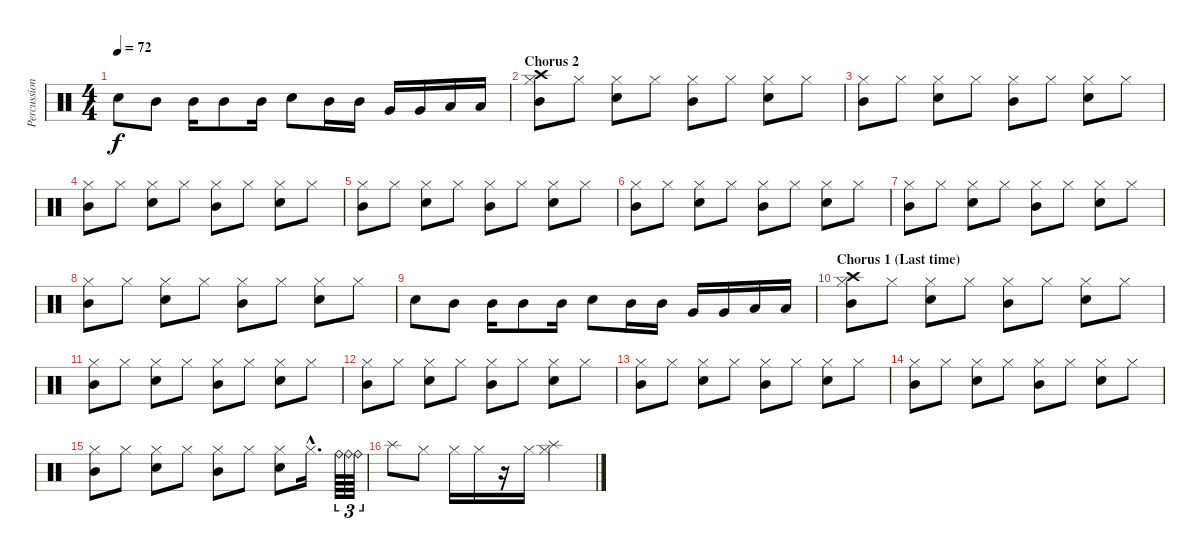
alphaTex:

\track ("Percussion" "Percussion") {instrument percussion}
\staff {score}
\articulation defaults
\ts (4 4)
\tempo 72
\clef neutral
\ks c "Snare (hit) 2".8{dy f} "Mid Tom (hit)".8 "Mid Tom (hit)".16 "Mid Tom (hit)".8 "Mid Tom (hit)".16 "Snare (hit) 2".8 "Mid Tom (hit)".16 "Mid Tom (hit)".16 "Very Low Tom (hit)".16 "Very Low Tom (hit)".16 "Low Floor Tom (hit)".16 "Low Floor Tom (hit)".16
|
\section ("" "Chorus 2")
("Crash high (hit)" "Hi-Hat (closed)" "Mid Tom (hit)").8 "Hi-Hat (closed)".8 ("Hi-Hat (closed)" "Snare (hit) 2").8 "Hi-Hat (closed)".8 ("Hi-Hat (closed)" "Mid Tom (hit)").8 "Hi-Hat (closed)".8 ("Hi-Hat (closed)" "Snare (hit) 2").8 "Hi-Hat (closed)".8 |
("Hi-Hat (closed)" "Mid Tom (hit)").8 "Hi-Hat (closed)".8 ("Hi-Hat (closed)" "Snare (hit) 2").8 "Hi-Hat (closed)".8 ("Hi-Hat (closed)" "Mid Tom (hit)").8 "Hi-Hat (closed)".8 ("Hi-Hat (closed)" "Snare (hit) 2").8 "Hi-Hat (closed)".8 |
("Hi-Hat (closed)" "Mid Tom (hit)").8 "Hi-Hat (closed)".8 ("Hi-Hat (closed)" "Snare (hit) 2").8 "Hi-Hat (closed)".8 ("Hi-Hat (closed)" "Mid Tom (hit)").8 "Hi-Hat (closed)".8 ("Hi-Hat (closed)" "Snare (hit) 2").8 "Hi-Hat (closed)".8 |
("Hi-Hat (closed)" "Mid Tom (hit)").8 "Hi-Hat (closed)".8 ("Hi-Hat (closed)" "Snare (hit) 2").8 "Hi-Hat (closed)".8 ("Hi-Hat (closed)" "Mid Tom (hit)").8 "Hi-Hat (closed)".8 ("Hi-Hat (closed)" "Snare (hit) 2").8 "Hi-Hat (closed)".8 |
("Hi-Hat (closed)" "Mid Tom (hit)").8 "Hi-Hat (closed)".8 ("Hi-Hat (closed)" "Snare (hit) 2").8 "Hi-Hat (closed)".8 ("Hi-Hat (closed)" "Mid Tom (hit)").8 "Hi-Hat (closed)".8 ("Hi-Hat (closed)" "Snare (hit) 2").8 "Hi-Hat (closed)".8 |
("Hi-Hat (closed)" "Mid Tom (hit)").8 "Hi-Hat (closed)".8 ("Hi-Hat (closed)" "Snare (hit) 2").8 "Hi-Hat (closed)".8 ("Hi-Hat (closed)" "Mid Tom (hit)").8 "Hi-Hat (closed)".8 ("Hi-Hat (closed)" "Snare (hit) 2").8 "Hi-Hat (closed)".8 |
("Hi-Hat (closed)" "Mid Tom (hit)").8 "Hi-Hat (closed)".8 ("Hi-Hat (closed)" "Snare (hit) 2").8 "Hi-Hat (closed)".8 ("Hi-Hat (closed)" "Mid Tom (hit)").8 "Hi-Hat (closed)".8 ("Hi-Hat (closed)" "Snare (hit) 2").8 "Hi-Hat (closed)".8 |
"Snare (hit) 2".8 "Mid Tom (hit)".8 "Mid Tom (hit)".16 "Mid Tom (hit)".8 "Mid Tom (hit)".16 "Snare (hit) 2".8 "Mid Tom (hit)".16 "Mid Tom (hit)".16 "Very Low Tom (hit)".16 "Very Low Tom (hit)".16 "Low Floor Tom (hit)".16 "Low Floor Tom (hit)".16 |
\section ("" "Chorus 1 (Last time)")
("Crash high (hit)" "Hi-Hat (closed)" "Mid Tom (hit)").8 "Hi-Hat (closed)".8 ("Hi-Hat (closed)" "Snare (hit) 2").8 "Hi-Hat (closed)".8 ("Hi-Hat (closed)" "Mid Tom (hit)").8 "Hi-Hat (closed)".8 ("Hi-Hat (closed)" "Snare (hit) 2").8 "Hi-Hat (closed)".8 |
("Hi-Hat (closed)" "Mid Tom (hit)").8 "Hi-Hat (closed)".8 ("Hi-Hat (closed)" "Snare (hit) 2").8 "Hi-Hat (closed)".8 ("Hi-Hat (closed)" "Mid Tom (hit)").8 "Hi-Hat (closed)".8 ("Hi-Hat (closed)" "Snare (hit) 2").8 "Hi-Hat (closed)".8 |
("Hi-Hat (closed)" "Mid Tom (hit)").8 "Hi-Hat (closed)".8 ("Hi-Hat (closed)" "Snare (hit) 2").8 "Hi-Hat (closed)".8 ("Hi-Hat (closed)" "Mid Tom (hit)").8 "Hi-Hat (closed)".8 ("Hi-Hat (closed)" "Snare (hit) 2").8 "Hi-Hat (closed)".8 |
("Hi-Hat (closed)" "Mid Tom (hit)").8 "Hi-Hat (closed)".8 ("Hi-Hat (closed)" "Snare (hit) 2").8 "Hi-Hat (closed)".8 ("Hi-Hat (closed)" "Mid Tom (hit)").8 "Hi-Hat (closed)".8 ("Hi-Hat (closed)" "Snare (hit) 2").8 "Hi-Hat (closed)".8 |
("Hi-Hat (closed)" "Mid Tom (hit)").8 "Hi-Hat (closed)".8 ("Hi-Hat (closed)" "Snare (hit) 2").8 "Hi-Hat (closed)".8 ("Hi-Hat (closed)" "Mid Tom (hit)").8 "Hi-Hat (closed)".8 ("Hi-Hat (closed)" "Snare (hit) 2").8 "Hi-Hat (closed)".8 |
("Hi-Hat (closed)" "Mid Tom (hit)").8 "Hi-Hat (closed)".8 ("Hi-Hat (closed)" "Snare (hit) 2").8 "Hi-Hat (closed)".8 ("Hi-Hat (closed)" "Mid Tom (hit)").8 "Hi-Hat (closed)".8 ("Hi-Hat (closed)" "Snare (hit) 2").8 "Hi-Hat (closed)"{hac}.16{d} "Ride (bell)".64{tu (3 2)} "Ride (bell)".64{tu (3 2)} "Ride (bell)".64{tu (3 2)} |
"Splash (hit)".8 "Hi-Hat (closed)".8 "Hi-Hat (closed)".16 "Hi-Hat (closed)".16 r.16 "Hi-Hat (closed)".16 ("Splash (hit)" "Hi-Hat (closed)").2
